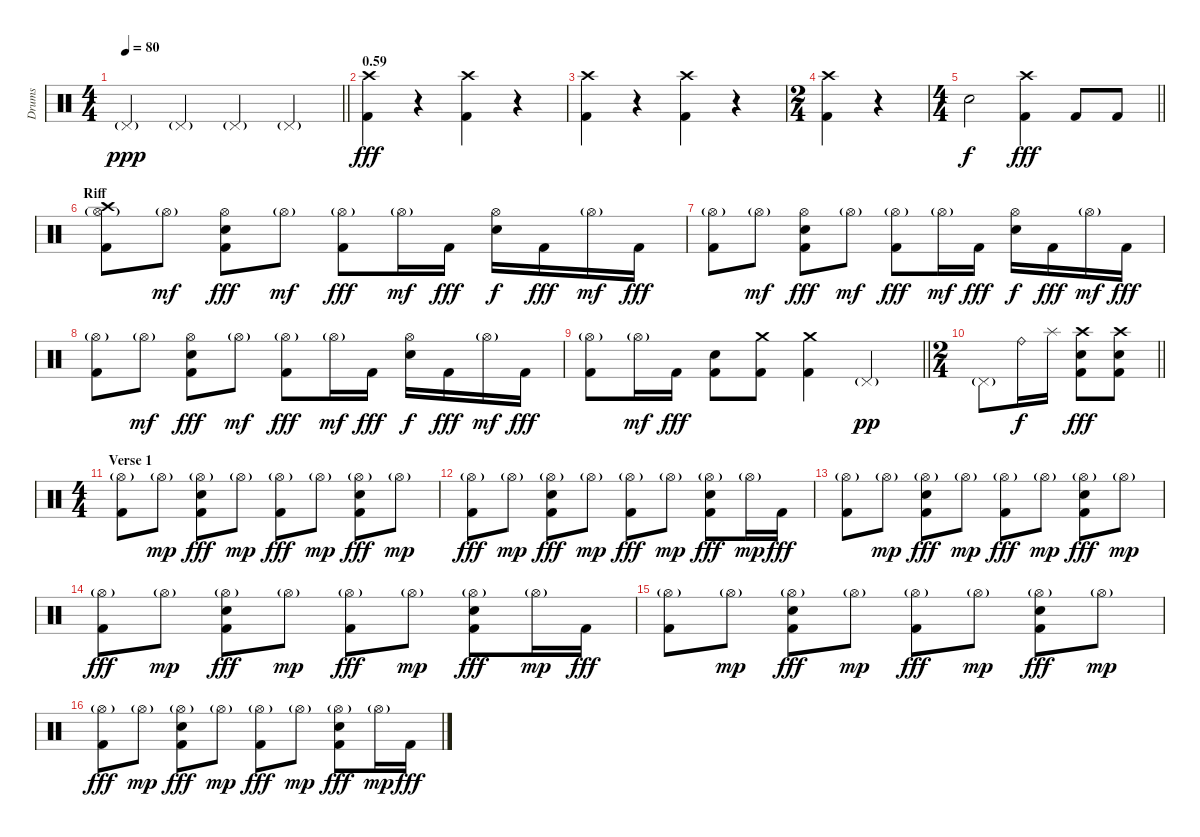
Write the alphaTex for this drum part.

\track ("Drums" "Drums") {instrument percussion}
\staff {score}
\articulation defaults
\ts (4 4)
\tempo 80
\clef neutral
\barLineRight lightlight
\ks c "Pedal Hi-Hat (hit)"{g}.4{dy ppp} "Pedal Hi-Hat (hit)"{g}.4 "Pedal Hi-Hat (hit)"{g}.4 "Pedal Hi-Hat (hit)"{g}.4
|
\section ("" "0.59")
("Crash high (hit)" "Kick (hit) 2").4{dy fff} r.4 ("Crash high (hit)" "Kick (hit) 2").4 r.4 |
("Crash high (hit)" "Kick (hit) 2").4 r.4 ("Crash high (hit)" "Kick (hit) 2").4 r.4 |
\ts (2 4)
("Crash high (hit)" "Kick (hit) 2").4 r.4 |
\ts (4 4)
\barLineRight lightlight "Electric Snare (hit)".2{dy f}
("Crash high (hit)" "Kick (hit) 2").4{dy fff} "Kick (hit) 2".8 "Kick (hit) 2".8 |
\section ("" "Riff")
("Crash high (hit)" "Hi-Hat (open)"{g} "Kick (hit) 2").8 "Hi-Hat (open)"{g}.8{dy mf} ("Hi-Hat (open)" "Electric Snare (hit)" "Kick (hit) 2").8{dy fff} "Hi-Hat (open)"{g}.8{dy mf} ("Hi-Hat (open)"{g} "Kick (hit) 2").8{dy fff} "Hi-Hat (open)"{g}.16{dy mf} "Kick (hit) 2".16{dy fff} ("Hi-Hat (open)" "Electric Snare (hit)").16{dy f} "Kick (hit) 2".16{dy fff} "Hi-Hat (open)"{g}.16{dy mf} "Kick (hit) 2".16{dy fff} |
("Hi-Hat (open)"{g} "Kick (hit) 2").8 "Hi-Hat (open)"{g}.8{dy mf} ("Hi-Hat (open)" "Electric Snare (hit)" "Kick (hit) 2").8{dy fff} "Hi-Hat (open)"{g}.8{dy mf} ("Hi-Hat (open)"{g} "Kick (hit) 2").8{dy fff} "Hi-Hat (open)"{g}.16{dy mf} "Kick (hit) 2".16{dy fff} ("Hi-Hat (open)" "Electric Snare (hit)").16{dy f} "Kick (hit) 2".16{dy fff} "Hi-Hat (open)"{g}.16{dy mf} "Kick (hit) 2".16{dy fff} |
("Hi-Hat (open)"{g} "Kick (hit) 2").8 "Hi-Hat (open)"{g}.8{dy mf} ("Hi-Hat (open)" "Electric Snare (hit)" "Kick (hit) 2").8{dy fff} "Hi-Hat (open)"{g}.8{dy mf} ("Hi-Hat (open)"{g} "Kick (hit) 2").8{dy fff} "Hi-Hat (open)"{g}.16{dy mf} "Kick (hit) 2".16{dy fff} ("Hi-Hat (open)" "Electric Snare (hit)").16{dy f} "Kick (hit) 2".16{dy fff} "Hi-Hat (open)"{g}.16{dy mf} "Kick (hit) 2".16{dy fff} |
\barLineRight lightlight
("Hi-Hat (open)"{g} "Kick (hit) 2").8 "Hi-Hat (open)"{g}.16{dy mf} "Kick (hit) 2".16{dy fff} ("Electric Snare (hit)" "Kick (hit) 2").8 ("Crash medium (hit)" "Kick (hit) 2").8 ("Crash medium (hit)" "Kick (hit) 2").4 "Pedal Hi-Hat (hit)"{g}.4{dy pp} |
\ts (2 4)
\barLineRight lightlight "Pedal Hi-Hat (hit)"{g}.8 "Ride (bell)".16{dy f} "Splash (hit)".16
("Crash high (hit)" "Electric Snare (hit)" "Kick (hit) 2").8{dy fff} ("Crash high (hit)" "Electric Snare (hit)" "Kick (hit) 2").8 |
\ts (4 4)
\section ("" "Verse 1")
("Hi-Hat (open)"{g} "Kick (hit) 2").8 "Hi-Hat (open)"{g}.8{dy mp} ("Hi-Hat (open)"{g} "Snare (hit) 2" "Kick (hit) 2").8{dy fff} "Hi-Hat (open)"{g}.8{dy mp} ("Hi-Hat (open)"{g} "Kick (hit) 2").8{dy fff} "Hi-Hat (open)"{g}.8{dy mp} ("Hi-Hat (open)"{g} "Snare (hit) 2" "Kick (hit) 2").8{dy fff} "Hi-Hat (open)"{g}.8{dy mp} |
("Hi-Hat (open)"{g} "Kick (hit) 2").8{dy fff} "Hi-Hat (open)"{g}.8{dy mp} ("Hi-Hat (open)"{g} "Snare (hit) 2" "Kick (hit) 2").8{dy fff} "Hi-Hat (open)"{g}.8{dy mp} ("Hi-Hat (open)"{g} "Kick (hit) 2").8{dy fff} "Hi-Hat (open)"{g}.8{dy mp} ("Hi-Hat (open)"{g} "Snare (hit) 2" "Kick (hit) 2").8{dy fff} "Hi-Hat (open)"{g}.16{dy mp} "Kick (hit) 2".16{dy fff} |
("Hi-Hat (open)"{g} "Kick (hit) 2").8 "Hi-Hat (open)"{g}.8{dy mp} ("Hi-Hat (open)"{g} "Snare (hit) 2" "Kick (hit) 2").8{dy fff} "Hi-Hat (open)"{g}.8{dy mp} ("Hi-Hat (open)"{g} "Kick (hit) 2").8{dy fff} "Hi-Hat (open)"{g}.8{dy mp} ("Hi-Hat (open)"{g} "Snare (hit) 2" "Kick (hit) 2").8{dy fff} "Hi-Hat (open)"{g}.8{dy mp} |
("Hi-Hat (open)"{g} "Kick (hit) 2").8{dy fff} "Hi-Hat (open)"{g}.8{dy mp} ("Hi-Hat (open)"{g} "Snare (hit) 2" "Kick (hit) 2").8{dy fff} "Hi-Hat (open)"{g}.8{dy mp} ("Hi-Hat (open)"{g} "Kick (hit) 2").8{dy fff} "Hi-Hat (open)"{g}.8{dy mp} ("Hi-Hat (open)"{g} "Snare (hit) 2" "Kick (hit) 2").8{dy fff} "Hi-Hat (open)"{g}.16{dy mp} "Kick (hit) 2".16{dy fff} |
("Hi-Hat (open)"{g} "Kick (hit) 2").8 "Hi-Hat (open)"{g}.8{dy mp} ("Hi-Hat (open)"{g} "Snare (hit) 2" "Kick (hit) 2").8{dy fff} "Hi-Hat (open)"{g}.8{dy mp} ("Hi-Hat (open)"{g} "Kick (hit) 2").8{dy fff} "Hi-Hat (open)"{g}.8{dy mp} ("Hi-Hat (open)"{g} "Snare (hit) 2" "Kick (hit) 2").8{dy fff} "Hi-Hat (open)"{g}.8{dy mp} |
("Hi-Hat (open)"{g} "Kick (hit) 2").8{dy fff} "Hi-Hat (open)"{g}.8{dy mp} ("Hi-Hat (open)"{g} "Snare (hit) 2" "Kick (hit) 2").8{dy fff} "Hi-Hat (open)"{g}.8{dy mp} ("Hi-Hat (open)"{g} "Kick (hit) 2").8{dy fff} "Hi-Hat (open)"{g}.8{dy mp} ("Hi-Hat (open)"{g} "Snare (hit) 2" "Kick (hit) 2").8{dy fff} "Hi-Hat (open)"{g}.16{dy mp} "Kick (hit) 2".16{dy fff}
